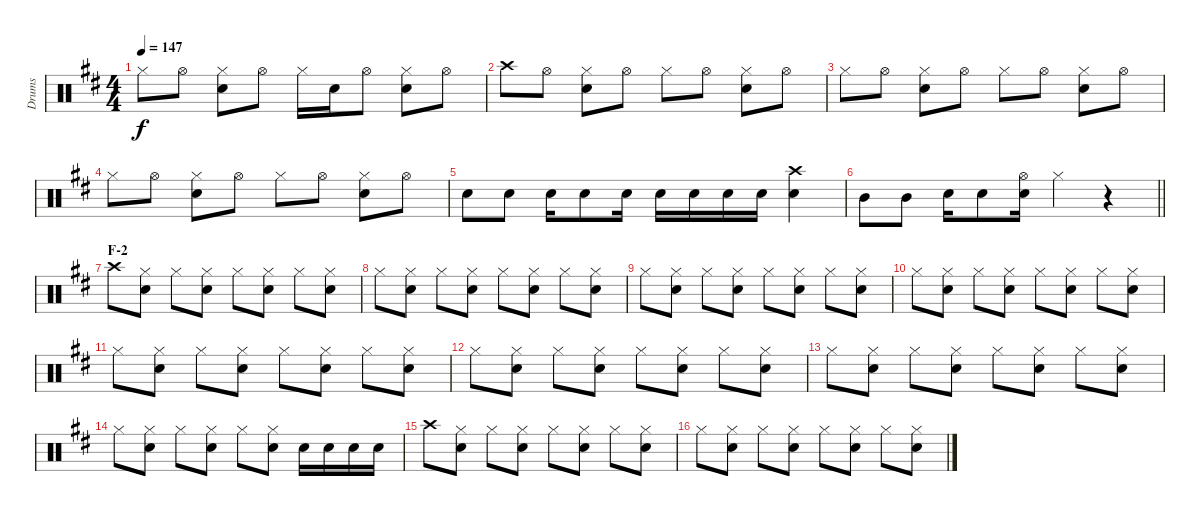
\track ("Drums" "Drums") {instrument percussion}
\staff {score}
\articulation defaults
\ts (4 4)
\tempo 147
\clef neutral
\ks d "Hi-Hat (closed)".8{dy f} "Hi-Hat (open)".8
("Hi-Hat (closed)" "Snare (hit) 2").8 "Hi-Hat (open)".8 "Hi-Hat (closed)".16 "Snare (hit) 2".16 "Hi-Hat (open)".8 ("Hi-Hat (closed)" "Snare (hit) 2").8 "Hi-Hat (open)".8 |
"Crash high (hit)".8 "Hi-Hat (open)".8 ("Hi-Hat (closed)" "Snare (hit) 2").8 "Hi-Hat (open)".8 "Hi-Hat (closed)".8 "Hi-Hat (open)".8 ("Hi-Hat (closed)" "Snare (hit) 2").8 "Hi-Hat (open)".8 |
"Hi-Hat (closed)".8 "Hi-Hat (open)".8 ("Hi-Hat (closed)" "Snare (hit) 2").8 "Hi-Hat (open)".8 "Hi-Hat (closed)".8 "Hi-Hat (open)".8 ("Hi-Hat (closed)" "Snare (hit) 2").8 "Hi-Hat (open)".8 |
"Hi-Hat (closed)".8 "Hi-Hat (open)".8 ("Hi-Hat (closed)" "Snare (hit) 2").8 "Hi-Hat (open)".8 "Hi-Hat (closed)".8 "Hi-Hat (open)".8 ("Hi-Hat (closed)" "Snare (hit) 2").8 "Hi-Hat (open)".8 |
"Snare (hit) 2".8 "Snare (hit) 2".8 "Snare (hit) 2".16 "Snare (hit) 2".8 "Snare (hit) 2".16 "Snare (hit) 2".16 "Snare (hit) 2".16 "Snare (hit) 2".16 "Snare (hit) 2".16 ("Snare (hit) 2" "Crash high (hit)").4 |
\barLineRight lightlight "Mid Tom (hit)".8 "Mid Tom (hit)".8 "Snare (hit) 2".16 "Snare (hit) 2".8
("Snare (hit) 2" "Hi-Hat (open)").16 "Hi-Hat (closed)".4 r.4 |
\section ("" "F-2")
"Crash high (hit)".8 ("Hi-Hat (closed)" "Snare (hit) 2").8 "Hi-Hat (closed)".8 ("Hi-Hat (closed)" "Snare (hit) 2").8 "Hi-Hat (closed)".8 ("Hi-Hat (closed)" "Snare (hit) 2").8 "Hi-Hat (closed)".8 ("Hi-Hat (closed)" "Snare (hit) 2").8 |
"Hi-Hat (closed)".8 ("Hi-Hat (closed)" "Snare (hit) 2").8 "Hi-Hat (closed)".8 ("Hi-Hat (closed)" "Snare (hit) 2").8 "Hi-Hat (closed)".8 ("Hi-Hat (closed)" "Snare (hit) 2").8 "Hi-Hat (closed)".8 ("Hi-Hat (closed)" "Snare (hit) 2").8 |
"Hi-Hat (closed)".8 ("Hi-Hat (closed)" "Snare (hit) 2").8 "Hi-Hat (closed)".8 ("Hi-Hat (closed)" "Snare (hit) 2").8 "Hi-Hat (closed)".8 ("Hi-Hat (closed)" "Snare (hit) 2").8 "Hi-Hat (closed)".8 ("Hi-Hat (closed)" "Snare (hit) 2").8 |
"Hi-Hat (closed)".8 ("Hi-Hat (closed)" "Snare (hit) 2").8 "Hi-Hat (closed)".8 ("Hi-Hat (closed)" "Snare (hit) 2").8 "Hi-Hat (closed)".8 ("Hi-Hat (closed)" "Snare (hit) 2").8 "Hi-Hat (closed)".8 ("Hi-Hat (closed)" "Snare (hit) 2").8 |
"Hi-Hat (closed)".8 ("Hi-Hat (closed)" "Snare (hit) 2").8 "Hi-Hat (closed)".8 ("Hi-Hat (closed)" "Snare (hit) 2").8 "Hi-Hat (closed)".8 ("Hi-Hat (closed)" "Snare (hit) 2").8 "Hi-Hat (closed)".8 ("Hi-Hat (closed)" "Snare (hit) 2").8 |
"Hi-Hat (closed)".8 ("Hi-Hat (closed)" "Snare (hit) 2").8 "Hi-Hat (closed)".8 ("Hi-Hat (closed)" "Snare (hit) 2").8 "Hi-Hat (closed)".8 ("Hi-Hat (closed)" "Snare (hit) 2").8 "Hi-Hat (closed)".8 ("Hi-Hat (closed)" "Snare (hit) 2").8 |
"Hi-Hat (closed)".8 ("Hi-Hat (closed)" "Snare (hit) 2").8 "Hi-Hat (closed)".8 ("Hi-Hat (closed)" "Snare (hit) 2").8 "Hi-Hat (closed)".8 ("Hi-Hat (closed)" "Snare (hit) 2").8 "Hi-Hat (closed)".8 ("Hi-Hat (closed)" "Snare (hit) 2").8 |
"Hi-Hat (closed)".8 ("Hi-Hat (closed)" "Snare (hit) 2").8 "Hi-Hat (closed)".8 ("Hi-Hat (closed)" "Snare (hit) 2").8 "Hi-Hat (closed)".8 ("Hi-Hat (closed)" "Snare (hit) 2").8 "Snare (hit) 2".16 "Snare (hit) 2".16 "Snare (hit) 2".16 "Snare (hit) 2".16 |
"Crash high (hit)".8 ("Hi-Hat (closed)" "Snare (hit) 2").8 "Hi-Hat (closed)".8 ("Hi-Hat (closed)" "Snare (hit) 2").8 "Hi-Hat (closed)".8 ("Hi-Hat (closed)" "Snare (hit) 2").8 "Hi-Hat (closed)".8 ("Hi-Hat (closed)" "Snare (hit) 2").8 |
"Hi-Hat (closed)".8 ("Hi-Hat (closed)" "Snare (hit) 2").8 "Hi-Hat (closed)".8 ("Hi-Hat (closed)" "Snare (hit) 2").8 "Hi-Hat (closed)".8 ("Hi-Hat (closed)" "Snare (hit) 2").8 "Hi-Hat (closed)".8 ("Hi-Hat (closed)" "Snare (hit) 2").8
